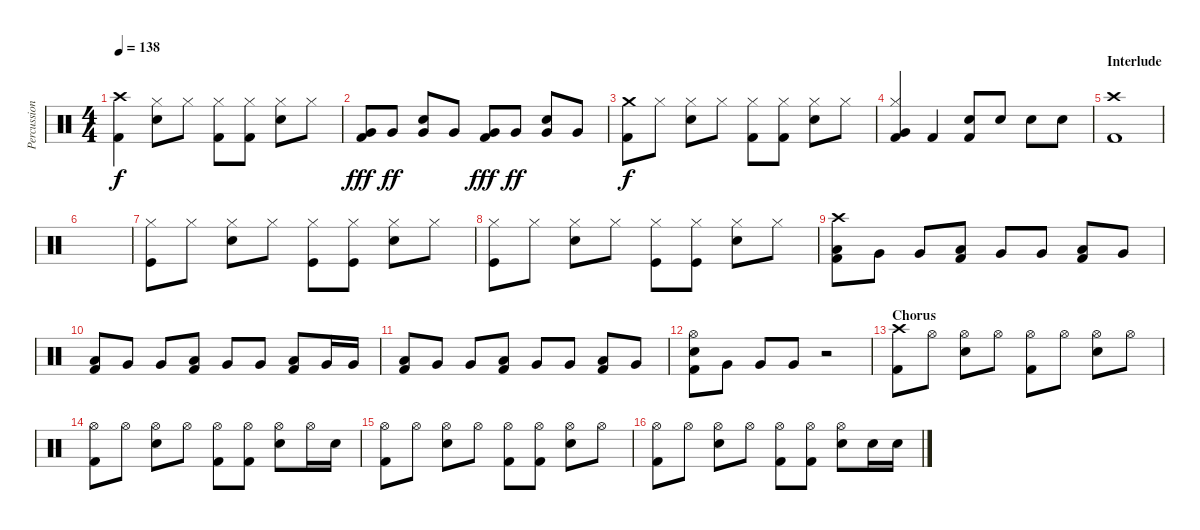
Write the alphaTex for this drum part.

\track ("Percussion" "Percussion") {instrument percussion}
\staff {score}
\articulation defaults
\ts (4 4)
\tempo 138
\clef neutral
\ks c
("Crash high (hit)" "Kick (hit) 2").4{dy f} ("Hi-Hat (closed)" "Electric Snare (hit)").8 "Hi-Hat (closed)".8 ("Hi-Hat (closed)" "Kick (hit) 2").8 ("Hi-Hat (closed)" "Kick (hit) 2").8 ("Hi-Hat (closed)" "Electric Snare (hit)").8 "Hi-Hat (closed)".8 |
("Very Low Tom (hit)" "Kick (hit) 2").8{dy fff} "Very Low Tom (hit)".8{dy ff} ("Electric Snare (hit)" "Very Low Tom (hit)").8 "Very Low Tom (hit)".8 ("Very Low Tom (hit)" "Kick (hit) 2").8{dy fff} "Very Low Tom (hit)".8{dy ff} ("Electric Snare (hit)" "Very Low Tom (hit)").8 "Very Low Tom (hit)".8 |
("Crash medium (hit)" "Kick (hit) 2").8{dy f} "Hi-Hat (closed)".8 ("Hi-Hat (closed)" "Electric Snare (hit)").8 "Hi-Hat (closed)".8 ("Hi-Hat (closed)" "Kick (hit) 2").8 ("Hi-Hat (closed)" "Kick (hit) 2").8 ("Hi-Hat (closed)" "Electric Snare (hit)").8 "Hi-Hat (closed)".8 |
("Hi-Hat (closed)" "Very Low Tom (hit)" "Kick (hit) 2").4 "Kick (hit) 2".4 ("Electric Snare (hit)" "Kick (hit) 2").8 "Electric Snare (hit)".8 "Electric Snare (hit)".8 "Electric Snare (hit)".8 |
\section ("" "Interlude")
("Crash high (hit)" "Kick (hit) 2").1 |
|
("Hi-Hat (closed)" "Kick (hit)").8 "Hi-Hat (closed)".8 ("Hi-Hat (closed)" "Electric Snare (hit)").8 "Hi-Hat (closed)".8 ("Hi-Hat (closed)" "Kick (hit)").8 ("Hi-Hat (closed)" "Kick (hit)").8 ("Hi-Hat (closed)" "Electric Snare (hit)").8 "Hi-Hat (closed)".8 |
("Hi-Hat (closed)" "Kick (hit)").8 "Hi-Hat (closed)".8 ("Hi-Hat (closed)" "Electric Snare (hit)").8 "Hi-Hat (closed)".8 ("Hi-Hat (closed)" "Kick (hit)").8 ("Hi-Hat (closed)" "Kick (hit)").8 ("Hi-Hat (closed)" "Electric Snare (hit)").8 "Hi-Hat (closed)".8 |
("Crash high (hit)" "Low Tom (hit)" "Kick (hit) 2").8 "Very Low Tom (hit)".8 "Very Low Tom (hit)".8 ("Low Tom (hit)" "Kick (hit) 2").8 "Very Low Tom (hit)".8 "Very Low Tom (hit)".8 ("Low Tom (hit)" "Kick (hit) 2").8 "Very Low Tom (hit)".8 |
("Low Tom (hit)" "Kick (hit) 2").8 "Very Low Tom (hit)".8 "Very Low Tom (hit)".8 ("Low Tom (hit)" "Kick (hit) 2").8 "Very Low Tom (hit)".8 "Very Low Tom (hit)".8 ("Low Tom (hit)" "Kick (hit) 2").8 "Very Low Tom (hit)".16 "Very Low Tom (hit)".16 |
("Low Tom (hit)" "Kick (hit) 2").8 "Very Low Tom (hit)".8 "Very Low Tom (hit)".8 ("Low Tom (hit)" "Kick (hit) 2").8 "Very Low Tom (hit)".8 "Very Low Tom (hit)".8 ("Low Tom (hit)" "Kick (hit) 2").8 "Very Low Tom (hit)".8 |
("Hi-Hat (open)" "Electric Snare (hit)" "Kick (hit) 2").8 "Very Low Tom (hit)".8 "Very Low Tom (hit)".8 "Very Low Tom (hit)".8 r.2{volume 0} |
\section ("" "Chorus")
("Crash high (hit)" "Kick (hit) 2").8{volume 13} "Hi-Hat (open)".8 ("Hi-Hat (open)" "Electric Snare (hit)").8 "Hi-Hat (open)".8 ("Hi-Hat (open)" "Kick (hit) 2").8 "Hi-Hat (open)".8 ("Hi-Hat (open)" "Electric Snare (hit)").8 "Hi-Hat (open)".8 |
("Hi-Hat (open)" "Kick (hit) 2").8 "Hi-Hat (open)".8 ("Hi-Hat (open)" "Electric Snare (hit)").8 "Hi-Hat (open)".8 ("Hi-Hat (open)" "Kick (hit) 2").8 ("Hi-Hat (open)" "Kick (hit) 2").8 ("Hi-Hat (open)" "Electric Snare (hit)").8 "Hi-Hat (open)".16 "Electric Snare (hit)".16 |
("Hi-Hat (open)" "Kick (hit) 2").8 "Hi-Hat (open)".8 ("Hi-Hat (open)" "Electric Snare (hit)").8 "Hi-Hat (open)".8 ("Hi-Hat (open)" "Kick (hit) 2").8 ("Hi-Hat (open)" "Kick (hit) 2").8 ("Hi-Hat (open)" "Electric Snare (hit)").8 "Hi-Hat (open)".8 |
("Hi-Hat (open)" "Kick (hit) 2").8 "Hi-Hat (open)".8 ("Hi-Hat (open)" "Electric Snare (hit)").8 "Hi-Hat (open)".8 ("Hi-Hat (open)" "Kick (hit) 2").8 ("Hi-Hat (open)" "Kick (hit) 2").8 ("Hi-Hat (open)" "Electric Snare (hit)").8 "Electric Snare (hit)".16 "Electric Snare (hit)".16
